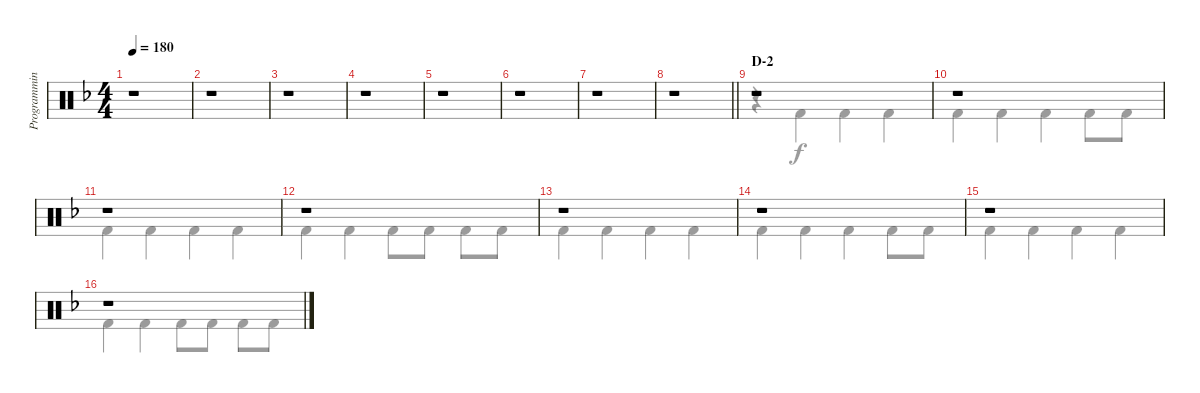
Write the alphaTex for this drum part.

\track ("Programming" "Programmin") {instrument percussion}
\staff {score}
\articulation defaults
\voice
\ts (4 4)
\tempo 180
\clef neutral
\ks f
r.1{dy mp} |
r.1 |
r.1 |
r.1 |
r.1 |
r.1 |
r.1 |
\barLineRight lightlight
r.1 |
\section ("" "D-2")
r.1 |
r.1 |
r.1 |
r.1 |
r.1 |
r.1 |
r.1 |
r.1
\voice
\clef neutral
\ottava regular
\simile none
\ks f
r.1{dy f} |
r.1 |
r.1 |
r.1 |
r.1 |
r.1 |
r.1 |
\barLineRight lightlight
r.1 |
r.4 "Kick (hit) 2".4 "Kick (hit) 2".4 "Kick (hit) 2".4 |
"Kick (hit) 2".4 "Kick (hit) 2".4 "Kick (hit) 2".4 "Kick (hit) 2".8 "Kick (hit) 2".8 |
"Kick (hit) 2".4 "Kick (hit) 2".4 "Kick (hit) 2".4 "Kick (hit) 2".4 |
"Kick (hit) 2".4 "Kick (hit) 2".4 "Kick (hit) 2".8 "Kick (hit) 2".8 "Kick (hit) 2".8 "Kick (hit) 2".8 |
"Kick (hit) 2".4 "Kick (hit) 2".4 "Kick (hit) 2".4 "Kick (hit) 2".4 |
"Kick (hit) 2".4 "Kick (hit) 2".4 "Kick (hit) 2".4 "Kick (hit) 2".8 "Kick (hit) 2".8 |
"Kick (hit) 2".4 "Kick (hit) 2".4 "Kick (hit) 2".4 "Kick (hit) 2".4 |
"Kick (hit) 2".4 "Kick (hit) 2".4 "Kick (hit) 2".8 "Kick (hit) 2".8 "Kick (hit) 2".8 "Kick (hit) 2".8
